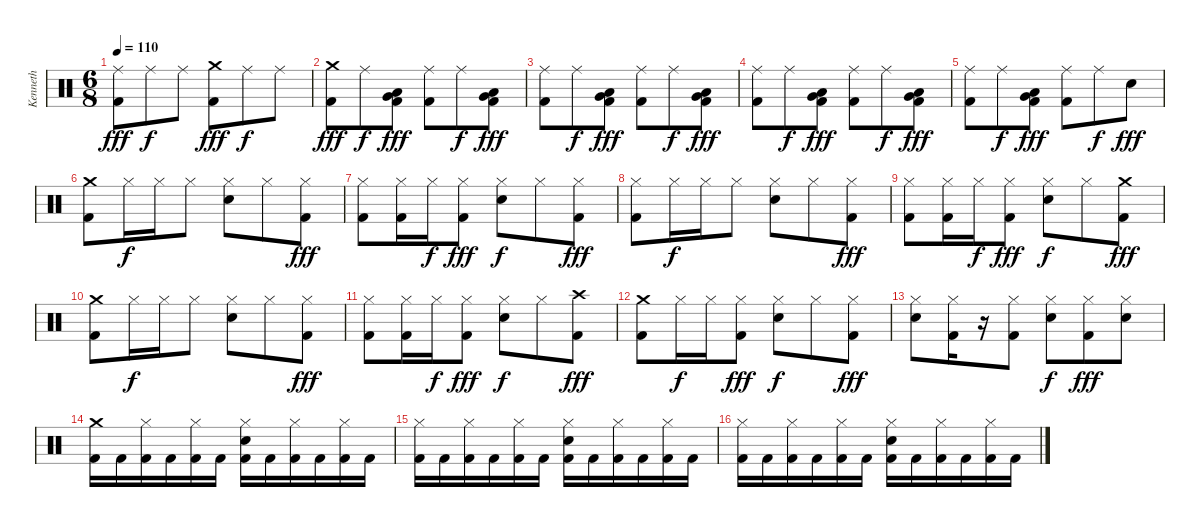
\track ("Kenneth" "Kenneth") {instrument percussion}
\staff {score}
\articulation defaults
\ts (6 8)
\tempo 110
\clef neutral
\ks c
("Ride (middle)" "Kick (hit) 2").8{dy fff} "Ride (middle)".8{dy f} "Ride (middle)".8 ("Crash medium (hit)" "Kick (hit) 2").8{dy fff} "Ride (middle)".8{dy f} "Ride (middle)".8 |
("Crash medium (hit)" "Kick (hit) 2").8{dy fff} "Ride (middle)".8{dy f} ("Low Tom (hit)" "Very Low Tom (hit)" "Kick (hit) 2").8{dy fff} ("Ride (middle)" "Kick (hit) 2").8 "Ride (middle)".8{dy f} ("Low Tom (hit)" "Very Low Tom (hit)" "Kick (hit) 2").8{dy fff} |
("Ride (middle)" "Kick (hit) 2").8 "Ride (middle)".8{dy f} ("Low Tom (hit)" "Very Low Tom (hit)" "Kick (hit) 2").8{dy fff} ("Ride (middle)" "Kick (hit) 2").8 "Ride (middle)".8{dy f} ("Low Tom (hit)" "Very Low Tom (hit)" "Kick (hit) 2").8{dy fff} |
("Ride (middle)" "Kick (hit) 2").8 "Ride (middle)".8{dy f} ("Low Tom (hit)" "Very Low Tom (hit)" "Kick (hit) 2").8{dy fff} ("Ride (middle)" "Kick (hit) 2").8 "Ride (middle)".8{dy f} ("Low Tom (hit)" "Very Low Tom (hit)" "Kick (hit) 2").8{dy fff} |
("Ride (middle)" "Kick (hit) 2").8 "Ride (middle)".8{dy f} ("Low Tom (hit)" "Very Low Tom (hit)" "Kick (hit) 2").8{dy fff} ("Ride (middle)" "Kick (hit) 2").8 "Ride (middle)".8{dy f} "Snare (hit) 2".8{dy fff} |
("Crash medium (hit)" "Kick (hit) 2").8 "Hi-Hat (closed)".16{dy f} "Hi-Hat (closed)".16 "Hi-Hat (closed)".8 ("Hi-Hat (closed)" "Snare (hit) 2").8 "Hi-Hat (closed)".8 ("Hi-Hat (closed)" "Kick (hit) 2").8{dy fff} |
("Hi-Hat (closed)" "Kick (hit) 2").8 ("Hi-Hat (closed)" "Kick (hit) 2").16 "Hi-Hat (closed)".16{dy f} ("Hi-Hat (closed)" "Kick (hit) 2").8{dy fff} ("Hi-Hat (closed)" "Snare (hit) 2").8{dy f} "Hi-Hat (closed)".8 ("Hi-Hat (closed)" "Kick (hit) 2").8{dy fff} |
("Hi-Hat (closed)" "Kick (hit) 2").8 "Hi-Hat (closed)".16{dy f} "Hi-Hat (closed)".16 "Hi-Hat (closed)".8 ("Hi-Hat (closed)" "Snare (hit) 2").8 "Hi-Hat (closed)".8 ("Hi-Hat (closed)" "Kick (hit) 2").8{dy fff} |
("Hi-Hat (closed)" "Kick (hit) 2").8 ("Hi-Hat (closed)" "Kick (hit) 2").16 "Hi-Hat (closed)".16{dy f} ("Hi-Hat (closed)" "Kick (hit) 2").8{dy fff} ("Hi-Hat (closed)" "Snare (hit) 2").8{dy f} "Hi-Hat (closed)".8 ("Crash medium (hit)" "Kick (hit) 2").8{dy fff} |
("Crash medium (hit)" "Kick (hit) 2").8 "Hi-Hat (closed)".16{dy f} "Hi-Hat (closed)".16 "Hi-Hat (closed)".8 ("Hi-Hat (closed)" "Snare (hit) 2").8 "Hi-Hat (closed)".8 ("Hi-Hat (closed)" "Kick (hit) 2").8{dy fff} |
("Hi-Hat (closed)" "Kick (hit) 2").8 ("Hi-Hat (closed)" "Kick (hit) 2").16 "Hi-Hat (closed)".16{dy f} ("Hi-Hat (closed)" "Kick (hit) 2").8{dy fff} ("Hi-Hat (closed)" "Snare (hit) 2").8{dy f} "Hi-Hat (closed)".8 ("Crash high (hit)" "Kick (hit) 2").8{dy fff} |
("Crash medium (hit)" "Kick (hit) 2").8 "Hi-Hat (closed)".16{dy f} "Hi-Hat (closed)".16 ("Hi-Hat (closed)" "Kick (hit) 2").8{dy fff} ("Hi-Hat (closed)" "Snare (hit) 2").8{dy f} "Hi-Hat (closed)".8 ("Hi-Hat (closed)" "Kick (hit) 2").8{dy fff} |
("Hi-Hat (closed)" "Electric Snare (hit)").8 ("Hi-Hat (closed)" "Kick (hit) 2").16 r.16 ("Hi-Hat (closed)" "Kick (hit) 2").8 ("Hi-Hat (closed)" "Snare (hit) 2").8{dy f} ("Hi-Hat (closed)" "Kick (hit) 2").8{dy fff} ("Hi-Hat (closed)" "Electric Snare (hit)").8 |
("Crash medium (hit)" "Kick (hit) 2").16 "Kick (hit) 2".16 ("Hi-Hat (closed)" "Kick (hit) 2").16 "Kick (hit) 2".16 ("Hi-Hat (closed)" "Kick (hit) 2").16 "Kick (hit) 2".16 ("Hi-Hat (closed)" "Snare (hit) 2" "Kick (hit) 2").16 "Kick (hit) 2".16 ("Hi-Hat (closed)" "Kick (hit) 2").16 "Kick (hit) 2".16 ("Hi-Hat (closed)" "Kick (hit) 2").16 "Kick (hit) 2".16 |
("Hi-Hat (closed)" "Kick (hit) 2").16 "Kick (hit) 2".16 ("Hi-Hat (closed)" "Kick (hit) 2").16 "Kick (hit) 2".16 ("Hi-Hat (closed)" "Kick (hit) 2").16 "Kick (hit) 2".16 ("Hi-Hat (closed)" "Snare (hit) 2" "Kick (hit) 2").16 "Kick (hit) 2".16 ("Hi-Hat (closed)" "Kick (hit) 2").16 "Kick (hit) 2".16 ("Hi-Hat (closed)" "Kick (hit) 2").16 "Kick (hit) 2".16 |
("Hi-Hat (closed)" "Kick (hit) 2").16 "Kick (hit) 2".16 ("Hi-Hat (closed)" "Kick (hit) 2").16 "Kick (hit) 2".16 ("Hi-Hat (closed)" "Kick (hit) 2").16 "Kick (hit) 2".16 ("Hi-Hat (closed)" "Snare (hit) 2" "Kick (hit) 2").16 "Kick (hit) 2".16 ("Hi-Hat (closed)" "Kick (hit) 2").16 "Kick (hit) 2".16 ("Hi-Hat (closed)" "Kick (hit) 2").16 "Kick (hit) 2".16
